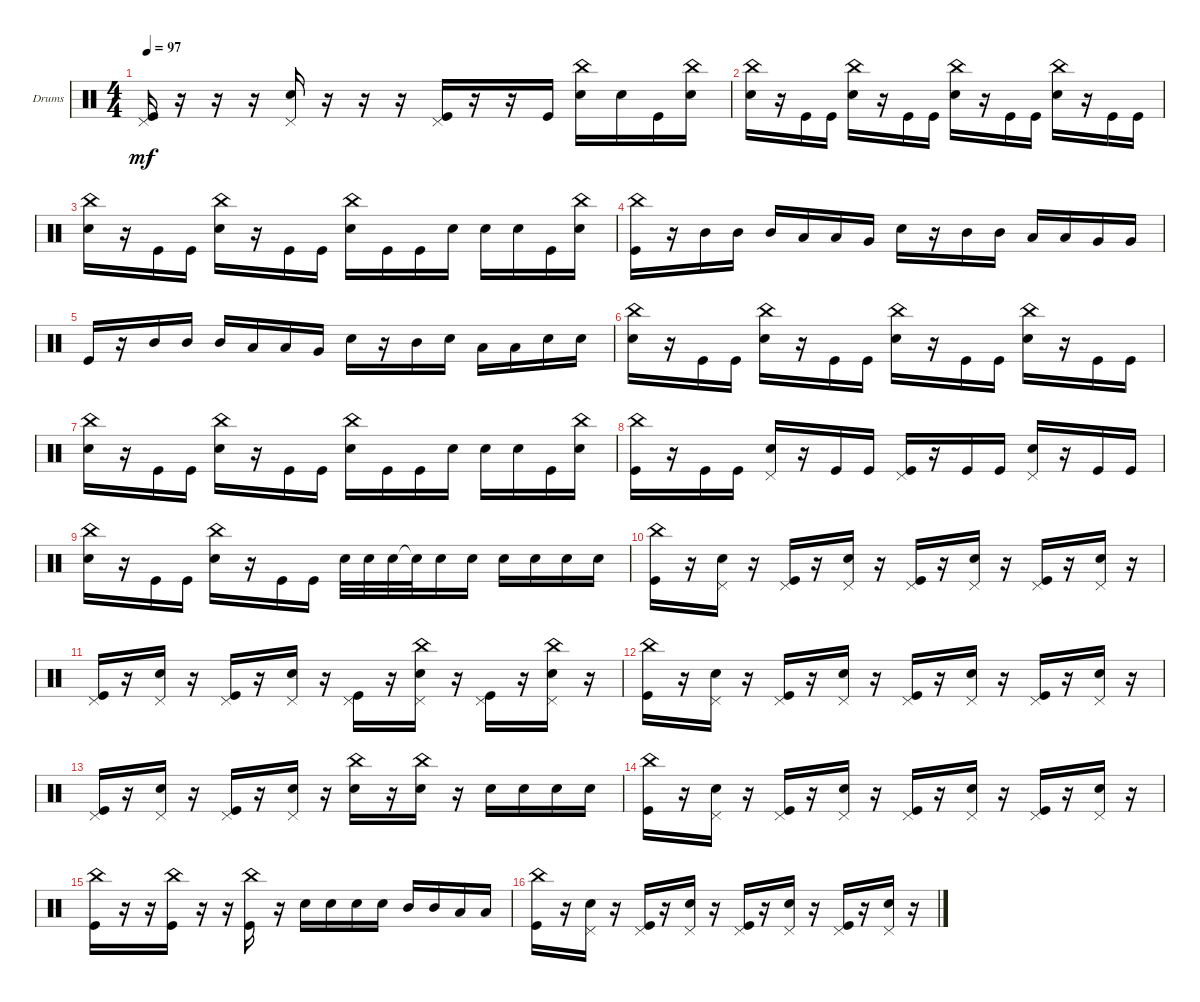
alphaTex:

\defaultSystemsLayout 4
\bracketExtendMode groupsimilarinstruments
\firstSystemTrackNameOrientation horizontal
\otherSystemsTrackNameOrientation horizontal
\track ("Drumkit" "Drums") {instrument percussion}
\staff {score}
\articulation defaults
\ts (4 4)
\tempo 97
\clef neutral
\ks c
("Kick (hit)" "Pedal Hi-Hat (hit)").16{dy mf} r.16 r.16 r.16 ("Pedal Hi-Hat (hit)" "Snare (hit) 2").16 r.16 r.16 r.16 ("Pedal Hi-Hat (hit)" "Kick (hit)").16 r.16 r.16 "Kick (hit)".16 ("Snare (hit) 2" "China (hit)").16 "Snare (hit) 2".16 "Kick (hit)".16 ("Snare (hit) 2" "China (hit)").16 |
("Snare (hit) 2" "China (hit)").16 r.16 "Kick (hit)".16 "Kick (hit)".16 ("Snare (hit) 2" "China (hit)").16 r.16 "Kick (hit)".16 "Kick (hit)".16 ("Snare (hit) 2" "China (hit)").16 r.16 "Kick (hit)".16 "Kick (hit)".16 ("Snare (hit) 2" "China (hit)").16 r.16 "Kick (hit)".16 "Kick (hit)".16 |
("Snare (hit) 2" "China (hit)").16 r.16 "Kick (hit)".16 "Kick (hit)".16 ("Snare (hit) 2" "China (hit)").16 r.16 "Kick (hit)".16 "Kick (hit)".16 ("Snare (hit) 2" "China (hit)").16 "Kick (hit)".16 "Kick (hit)".16 "Snare (hit) 2".16 "Snare (hit) 2".16 "Snare (hit) 2".16 "Kick (hit)".16 ("Snare (hit) 2" "China (hit)").16 |
("Kick (hit)" "China (hit)").16 r.16 "Mid Tom (hit)".16 "Mid Tom (hit)".16 "Mid Tom (hit)".16 "Low Tom (hit)".16 "Low Tom (hit)".16 "Very Low Tom (hit)".16 "Snare (hit) 2".16 r.16 "Mid Tom (hit)".16 "Mid Tom (hit)".16 "Low Tom (hit)".16 "Low Tom (hit)".16 "Very Low Tom (hit)".16 "Very Low Tom (hit)".16 |
"Kick (hit)".16 r.16 "Mid Tom (hit)".16 "Mid Tom (hit)".16 "Mid Tom (hit)".16 "Low Tom (hit)".16 "Low Tom (hit)".16 "Very Low Tom (hit)".16 "Snare (hit) 2".16 r.16 "Mid Tom (hit)".16 "Snare (hit) 2".16 "Low Tom (hit)".16 "Low Tom (hit)".16 "Snare (hit) 2".16 "Snare (hit) 2".16 |
("Snare (hit) 2" "China (hit)").16 r.16 "Kick (hit)".16 "Kick (hit)".16 ("Snare (hit) 2" "China (hit)").16 r.16 "Kick (hit)".16 "Kick (hit)".16 ("Snare (hit) 2" "China (hit)").16 r.16 "Kick (hit)".16 "Kick (hit)".16 ("Snare (hit) 2" "China (hit)").16 r.16 "Kick (hit)".16 "Kick (hit)".16 |
("Snare (hit) 2" "China (hit)").16 r.16 "Kick (hit)".16 "Kick (hit)".16 ("Snare (hit) 2" "China (hit)").16 r.16 "Kick (hit)".16 "Kick (hit)".16 ("Snare (hit) 2" "China (hit)").16 "Kick (hit)".16 "Kick (hit)".16 "Snare (hit) 2".16 "Snare (hit) 2".16 "Snare (hit) 2".16 "Kick (hit)".16 ("Snare (hit) 2" "China (hit)").16 |
("Kick (hit)" "China (hit)").16 r.16 "Kick (hit)".16 "Kick (hit)".16 ("Snare (hit) 2" "Pedal Hi-Hat (hit)").16 r.16 "Kick (hit)".16 "Kick (hit)".16 ("Kick (hit)" "Pedal Hi-Hat (hit)").16 r.16 "Kick (hit)".16 "Kick (hit)".16 ("Snare (hit) 2" "Pedal Hi-Hat (hit)").16 r.16 "Kick (hit)".16 "Kick (hit)".16 |
("Snare (hit) 2" "China (hit)").16 r.16 "Kick (hit)".16 "Kick (hit)".16 ("Snare (hit) 2" "China (hit)").16 r.16 "Kick (hit)".16 "Kick (hit)".16 "Snare (hit) 2".32 "Snare (hit) 2".32 "Snare (hit) 2".32 "Snare (hit) 2"{t}.32 "Snare (hit) 2".16 "Snare (hit) 2".16 "Snare (hit) 2".16 "Snare (hit) 2".16 "Snare (hit) 2".16 "Snare (hit) 2".16 |
("Kick (hit)" "China (hit)").16 r.16 ("Snare (hit) 2" "Pedal Hi-Hat (hit)").16 r.16 ("Kick (hit)" "Pedal Hi-Hat (hit)").16 r.16 ("Pedal Hi-Hat (hit)" "Snare (hit) 2").16 r.16 ("Pedal Hi-Hat (hit)" "Kick (hit)").16 r.16 ("Pedal Hi-Hat (hit)" "Snare (hit) 2").16 r.16 ("Pedal Hi-Hat (hit)" "Kick (hit)").16 r.16 ("Pedal Hi-Hat (hit)" "Snare (hit) 2").16 r.16 |
("Kick (hit)" "Pedal Hi-Hat (hit)").16 r.16 ("Snare (hit) 2" "Pedal Hi-Hat (hit)").16 r.16 ("Kick (hit)" "Pedal Hi-Hat (hit)").16 r.16 ("Pedal Hi-Hat (hit)" "Snare (hit) 2").16 r.16 ("Pedal Hi-Hat (hit)" "Kick (hit)").16 r.16 ("Pedal Hi-Hat (hit)" "Snare (hit) 2" "China (hit)").16 r.16 ("Pedal Hi-Hat (hit)" "Kick (hit)").16 r.16 ("Pedal Hi-Hat (hit)" "Snare (hit) 2" "China (hit)").16 r.16 |
("Kick (hit)" "China (hit)").16 r.16 ("Snare (hit) 2" "Pedal Hi-Hat (hit)").16 r.16 ("Kick (hit)" "Pedal Hi-Hat (hit)").16 r.16 ("Pedal Hi-Hat (hit)" "Snare (hit) 2").16 r.16 ("Pedal Hi-Hat (hit)" "Kick (hit)").16 r.16 ("Pedal Hi-Hat (hit)" "Snare (hit) 2").16 r.16 ("Pedal Hi-Hat (hit)" "Kick (hit)").16 r.16 ("Pedal Hi-Hat (hit)" "Snare (hit) 2").16 r.16 |
("Pedal Hi-Hat (hit)" "Kick (hit)").16 r.16 ("Pedal Hi-Hat (hit)" "Snare (hit) 2").16 r.16 ("Pedal Hi-Hat (hit)" "Kick (hit)").16 r.16 ("Pedal Hi-Hat (hit)" "Snare (hit) 2").16 r.16 ("Snare (hit) 2" "China (hit)").16 r.16 ("China (hit)" "Snare (hit) 2").16 r.16 "Snare (hit) 2".16 "Snare (hit) 2".16 "Snare (hit) 2".16 "Snare (hit) 2".16 |
("Kick (hit)" "China (hit)").16 r.16 ("Snare (hit) 2" "Pedal Hi-Hat (hit)").16 r.16 ("Kick (hit)" "Pedal Hi-Hat (hit)").16 r.16 ("Pedal Hi-Hat (hit)" "Snare (hit) 2").16 r.16 ("Pedal Hi-Hat (hit)" "Kick (hit)").16 r.16 ("Pedal Hi-Hat (hit)" "Snare (hit) 2").16 r.16 ("Pedal Hi-Hat (hit)" "Kick (hit)").16 r.16 ("Pedal Hi-Hat (hit)" "Snare (hit) 2").16 r.16 |
("Kick (hit)" "China (hit)").16 r.16 r.16 ("Kick (hit)" "China (hit)").16 r.16 r.16 ("China (hit)" "Kick (hit)").16 r.16 "Snare (hit) 2".16 "Snare (hit) 2".16 "Snare (hit) 2".16 "Snare (hit) 2".16 "Mid Tom (hit)".16 "Mid Tom (hit)".16 "Low Tom (hit)".16 "Low Tom (hit)".16 |
("Kick (hit)" "China (hit)").16 r.16 ("Snare (hit) 2" "Pedal Hi-Hat (hit)").16 r.16 ("Kick (hit)" "Pedal Hi-Hat (hit)").16 r.16 ("Pedal Hi-Hat (hit)" "Snare (hit) 2").16 r.16 ("Pedal Hi-Hat (hit)" "Kick (hit)").16 r.16 ("Pedal Hi-Hat (hit)" "Snare (hit) 2").16 r.16 ("Pedal Hi-Hat (hit)" "Kick (hit)").16 r.16 ("Pedal Hi-Hat (hit)" "Snare (hit) 2").16 r.16
